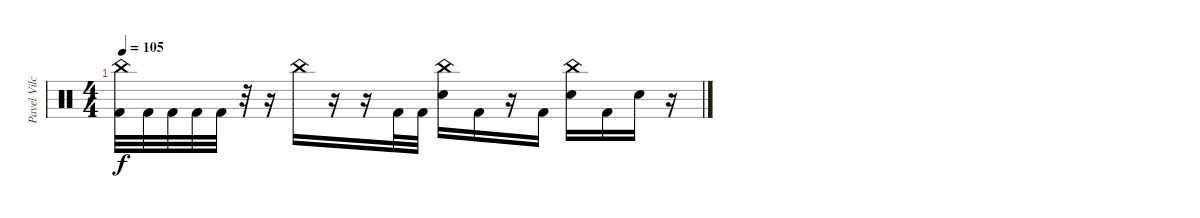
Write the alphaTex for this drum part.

\track ("Pavel Vilchytski" "Pavel Vilc") {instrument percussion}
\staff {score}
\articulation defaults
\ts (4 4)
\tempo 105
\clef neutral
\ks c
("China (hit)" "Kick (hit) 2").32{dy f} "Kick (hit) 2".32 "Kick (hit) 2".32 "Kick (hit) 2".32 "Kick (hit) 2".32 r.32 r.16 "China (hit)".16 r.16 r.16 "Kick (hit) 2".32 "Kick (hit) 2".32 ("China (hit)" "Electric Snare (hit)").16 "Kick (hit) 2".16 r.16 "Kick (hit) 2".16 ("China (hit)" "Electric Snare (hit)").16 "Kick (hit) 2".16 "Electric Snare (hit)".16 r.16
